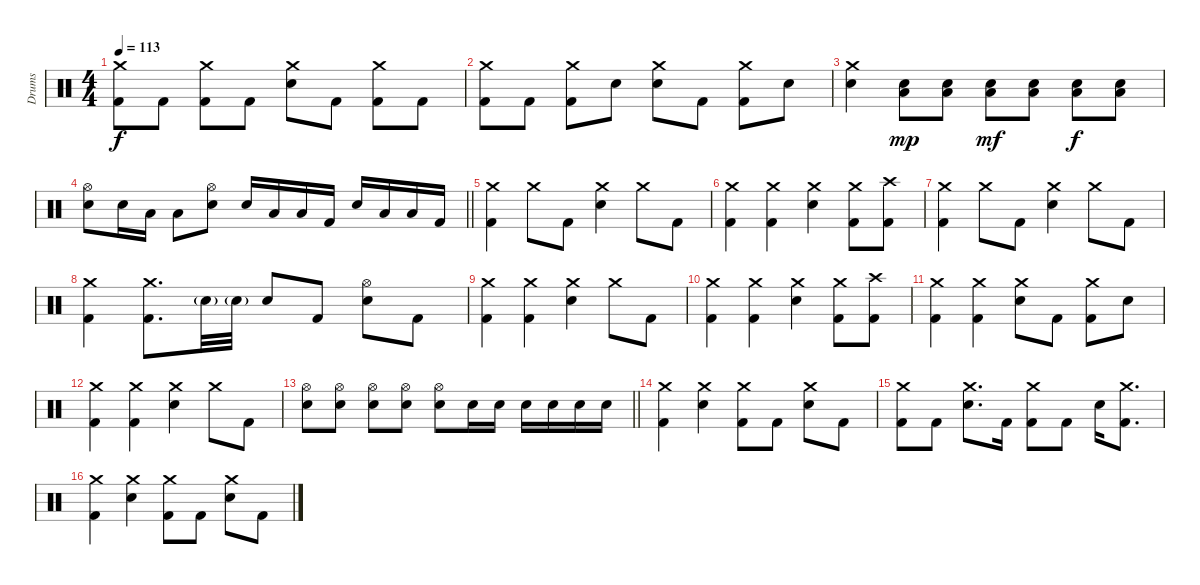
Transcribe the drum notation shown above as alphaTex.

\track ("Drums" "Drums") {instrument percussion}
\staff {score}
\articulation defaults
\ts (4 4)
\tempo 113
\clef neutral
\ks c
("Crash medium (hit)" "Kick (hit) 2").8{dy f} "Kick (hit) 2".8 ("Crash medium (hit)" "Kick (hit) 2").8 "Kick (hit) 2".8 ("Crash medium (hit)" "Electric Snare (hit)").8 "Kick (hit) 2".8 ("Crash medium (hit)" "Kick (hit) 2").8 "Kick (hit) 2".8 |
("Crash medium (hit)" "Kick (hit) 2").8 "Kick (hit) 2".8 ("Crash medium (hit)" "Kick (hit) 2").8 "Electric Snare (hit)".8 ("Crash medium (hit)" "Electric Snare (hit)").8 "Kick (hit) 2".8 ("Crash medium (hit)" "Kick (hit) 2").8 "Electric Snare (hit)".8 |
("Crash medium (hit)" "Electric Snare (hit)").4 ("Low Floor Tom (hit)" "Electric Snare (hit)").8{dy mp} ("Low Floor Tom (hit)" "Electric Snare (hit)").8 ("Low Floor Tom (hit)" "Electric Snare (hit)").8{dy mf} ("Low Floor Tom (hit)" "Electric Snare (hit)").8 ("Low Floor Tom (hit)" "Electric Snare (hit)").8{dy f} ("Low Floor Tom (hit)" "Electric Snare (hit)").8 |
\barLineRight lightlight
("Hi-Hat (open)" "Electric Snare (hit)").8 "Electric Snare (hit)".16 "Low Tom (hit)".16 "Low Floor Tom (hit)".8 ("Hi-Hat (open)" "Electric Snare (hit)").8 "Electric Snare (hit)".16 "Low Tom (hit)".16 "Low Floor Tom (hit)".16 "Kick (hit) 2".16 "Electric Snare (hit)".16 "Low Tom (hit)".16 "Low Floor Tom (hit)".16 "Kick (hit) 2".16 |
\section ("" "")
("Crash medium (hit)" "Kick (hit) 2").4 "Crash medium (hit)".8 "Kick (hit) 2".8 ("Crash medium (hit)" "Electric Snare (hit)").4 "Crash medium (hit)".8 "Kick (hit) 2".8 |
("Crash medium (hit)" "Kick (hit) 2").4 ("Crash medium (hit)" "Kick (hit) 2").4 ("Crash medium (hit)" "Electric Snare (hit)").4 ("Crash medium (hit)" "Kick (hit) 2").8 ("Crash high (hit)" "Kick (hit) 2").8 |
("Crash medium (hit)" "Kick (hit) 2").4 "Crash medium (hit)".8 "Kick (hit) 2".8 ("Crash medium (hit)" "Electric Snare (hit)").4 "Crash medium (hit)".8 "Kick (hit) 2".8 |
("Crash medium (hit)" "Kick (hit) 2").4 ("Crash medium (hit)" "Kick (hit) 2").8{d} "Electric Snare (hit)"{g}.32 "Electric Snare (hit)"{g}.32 "Electric Snare (hit)".8 "Kick (hit) 2".8 ("Hi-Hat (open)" "Electric Snare (hit)").8 "Kick (hit) 2".8 |
("Crash medium (hit)" "Kick (hit) 2").4 ("Crash medium (hit)" "Kick (hit) 2").4 ("Crash medium (hit)" "Electric Snare (hit)").4 "Crash medium (hit)".8 "Kick (hit) 2".8 |
("Crash medium (hit)" "Kick (hit) 2").4 ("Crash medium (hit)" "Kick (hit) 2").4 ("Crash medium (hit)" "Electric Snare (hit)").4 ("Crash medium (hit)" "Kick (hit) 2").8 ("Crash high (hit)" "Kick (hit) 2").8 |
("Crash medium (hit)" "Kick (hit) 2").4 ("Crash medium (hit)" "Kick (hit) 2").4 ("Crash medium (hit)" "Electric Snare (hit)").8 "Kick (hit) 2".8 ("Crash medium (hit)" "Kick (hit) 2").8 "Electric Snare (hit)".8 |
("Crash medium (hit)" "Kick (hit) 2").4 ("Crash medium (hit)" "Kick (hit) 2").4 ("Crash medium (hit)" "Electric Snare (hit)").4 "Crash medium (hit)".8 "Kick (hit) 2".8 |
\barLineRight lightlight
("Hi-Hat (open)" "Electric Snare (hit)").8 ("Hi-Hat (open)" "Electric Snare (hit)").8 ("Hi-Hat (open)" "Electric Snare (hit)").8 ("Hi-Hat (open)" "Electric Snare (hit)").8 ("Hi-Hat (open)" "Electric Snare (hit)").8 "Electric Snare (hit)".16 "Electric Snare (hit)".16 "Electric Snare (hit)".16 "Electric Snare (hit)".16 "Electric Snare (hit)".16 "Electric Snare (hit)".16 |
("Crash medium (hit)" "Kick (hit) 2").4 ("Crash medium (hit)" "Electric Snare (hit)").4 ("Crash medium (hit)" "Kick (hit) 2").8 "Kick (hit) 2".8 ("Crash medium (hit)" "Electric Snare (hit)").8 "Kick (hit) 2".8 |
("Crash medium (hit)" "Kick (hit) 2").8 "Kick (hit) 2".8 ("Crash medium (hit)" "Electric Snare (hit)").8{d} "Kick (hit) 2".16 ("Crash medium (hit)" "Kick (hit) 2").8 "Kick (hit) 2".8 "Electric Snare (hit)".16 ("Crash medium (hit)" "Kick (hit) 2").8{d} |
("Crash medium (hit)" "Kick (hit) 2").4 ("Crash medium (hit)" "Electric Snare (hit)").4 ("Crash medium (hit)" "Kick (hit) 2").8 "Kick (hit) 2".8 ("Crash medium (hit)" "Electric Snare (hit)").8 "Kick (hit) 2".8
